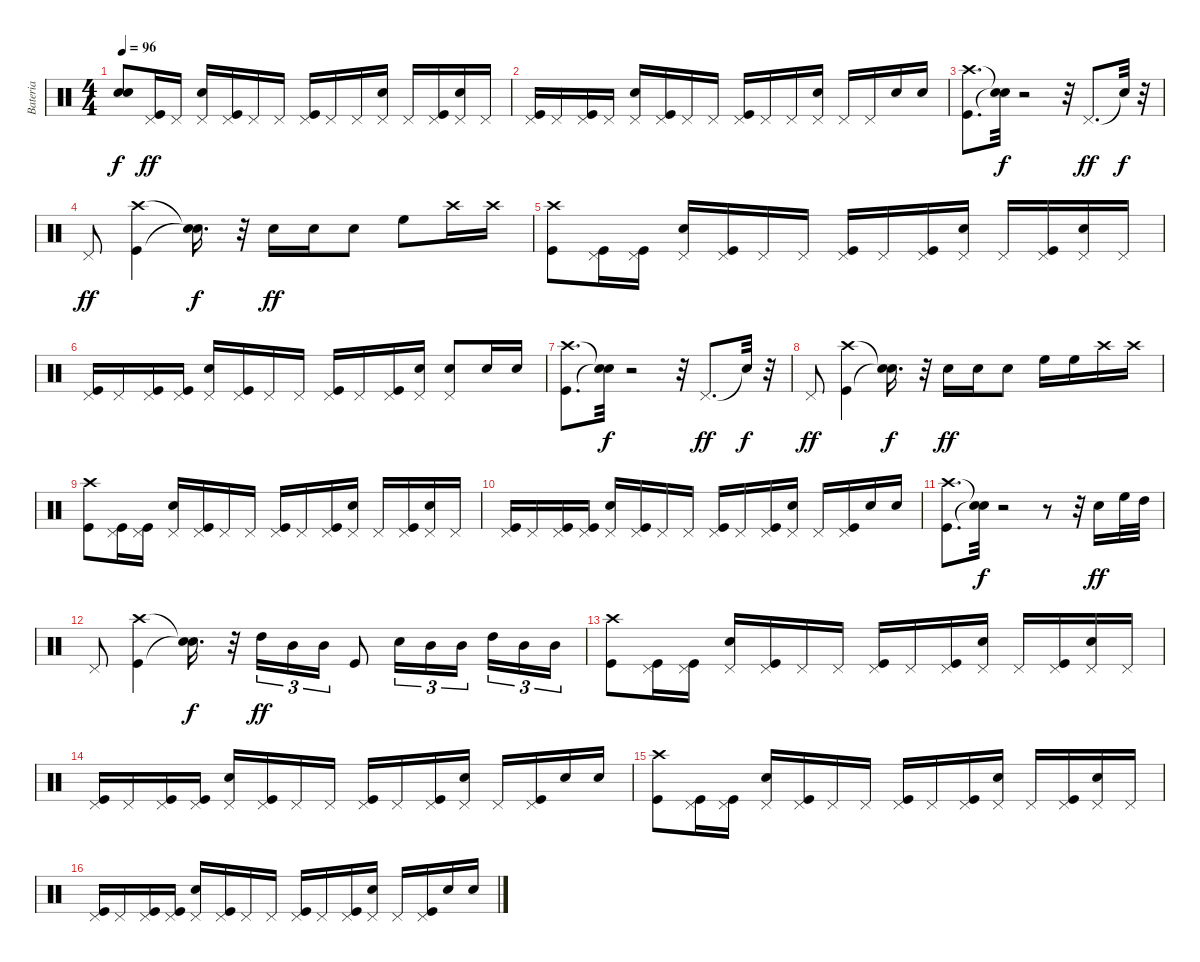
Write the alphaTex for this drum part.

\track ("Bateria" "Bateria") {instrument percussion}
\staff {score}
\articulation defaults
\ts (4 4)
\tempo 96
\clef neutral
\ks c
("Snare (hit)"{t} "Snare (hit)"{t}).8{dy f} ("Kick (hit)" "Pedal Hi-Hat (hit)").16{dy ff} "Pedal Hi-Hat (hit)".16 ("Snare (hit) 2" "Pedal Hi-Hat (hit)").16 ("Kick (hit)" "Pedal Hi-Hat (hit)").16 "Pedal Hi-Hat (hit)".16 "Pedal Hi-Hat (hit)".16 ("Kick (hit)" "Pedal Hi-Hat (hit)").16 "Pedal Hi-Hat (hit)".16 "Pedal Hi-Hat (hit)".16 ("Snare (hit) 2" "Pedal Hi-Hat (hit)").16 "Pedal Hi-Hat (hit)".16 ("Kick (hit)" "Pedal Hi-Hat (hit)").16 ("Snare (hit) 2" "Pedal Hi-Hat (hit)").16 "Pedal Hi-Hat (hit)".16 |
("Kick (hit)" "Pedal Hi-Hat (hit)").16 "Pedal Hi-Hat (hit)".16 ("Kick (hit)" "Pedal Hi-Hat (hit)").16 "Pedal Hi-Hat (hit)".16 ("Snare (hit) 2" "Pedal Hi-Hat (hit)").16 ("Kick (hit)" "Pedal Hi-Hat (hit)").16 "Pedal Hi-Hat (hit)".16 "Pedal Hi-Hat (hit)".16 ("Kick (hit)" "Pedal Hi-Hat (hit)").16 "Pedal Hi-Hat (hit)".16 "Pedal Hi-Hat (hit)".16 ("Snare (hit) 2" "Pedal Hi-Hat (hit)").16 "Pedal Hi-Hat (hit)".16 "Pedal Hi-Hat (hit)".16 "Snare (hit) 2".16 "Snare (hit) 2".16 |
("Kick (hit)" "Crash high (hit)").8{d} ("Snare (hit)"{t} "Snare (hit)"{t}).32{dy f} r.2 r.32 "Pedal Hi-Hat (hit)".8{d dy ff} "Snare (hit)"{t}.32{dy f} r.32 |
"Pedal Hi-Hat (hit)".8{dy ff} ("Kick (hit)" "Crash high (hit)").4 ("Snare (hit)"{t} "Snare (hit)"{t}).16{d dy f} r.32 "Snare (hit) 2".16{dy ff} "Snare (hit) 2".16 "Snare (hit) 2".8 "High Floor Tom (hit)".8 "Crash high (hit)".16 "Crash high (hit)".16 |
("Kick (hit)" "Crash high (hit)").8 ("Kick (hit)" "Pedal Hi-Hat (hit)").16 ("Kick (hit)" "Pedal Hi-Hat (hit)").16 ("Snare (hit) 2" "Pedal Hi-Hat (hit)").16 ("Kick (hit)" "Pedal Hi-Hat (hit)").16 "Pedal Hi-Hat (hit)".16 "Pedal Hi-Hat (hit)".16 ("Kick (hit)" "Pedal Hi-Hat (hit)").16 "Pedal Hi-Hat (hit)".16 ("Kick (hit)" "Pedal Hi-Hat (hit)").16 ("Snare (hit) 2" "Pedal Hi-Hat (hit)").16 "Pedal Hi-Hat (hit)".16 ("Kick (hit)" "Pedal Hi-Hat (hit)").16 ("Snare (hit) 2" "Pedal Hi-Hat (hit)").16 "Pedal Hi-Hat (hit)".16 |
("Kick (hit)" "Pedal Hi-Hat (hit)").16 "Pedal Hi-Hat (hit)".16 ("Kick (hit)" "Pedal Hi-Hat (hit)").16 ("Kick (hit)" "Pedal Hi-Hat (hit)").16 ("Snare (hit) 2" "Pedal Hi-Hat (hit)").16 ("Kick (hit)" "Pedal Hi-Hat (hit)").16 "Pedal Hi-Hat (hit)".16 "Pedal Hi-Hat (hit)".16 ("Kick (hit)" "Pedal Hi-Hat (hit)").16 "Pedal Hi-Hat (hit)".16 ("Kick (hit)" "Pedal Hi-Hat (hit)").16 ("Snare (hit) 2" "Pedal Hi-Hat (hit)").16 ("Snare (hit) 2" "Pedal Hi-Hat (hit)").8 "Snare (hit) 2".16 "Snare (hit) 2".16 |
("Kick (hit)" "Crash high (hit)").8{d} ("Snare (hit)"{t} "Snare (hit)"{t}).32{dy f} r.2 r.32 "Pedal Hi-Hat (hit)".8{d dy ff} "Snare (hit)"{t}.32{dy f} r.32 |
"Pedal Hi-Hat (hit)".8{dy ff} ("Kick (hit)" "Crash high (hit)").4 ("Snare (hit)"{t} "Snare (hit)"{t}).16{d dy f} r.32 "Snare (hit) 2".16{dy ff} "Snare (hit) 2".16 "Snare (hit) 2".8 "High Floor Tom (hit)".16 "High Floor Tom (hit)".16 "Crash high (hit)".16 "Crash high (hit)".16 |
("Kick (hit)" "Crash high (hit)").8 ("Kick (hit)" "Pedal Hi-Hat (hit)").16 ("Kick (hit)" "Pedal Hi-Hat (hit)").16 ("Snare (hit) 2" "Pedal Hi-Hat (hit)").16 ("Kick (hit)" "Pedal Hi-Hat (hit)").16 "Pedal Hi-Hat (hit)".16 "Pedal Hi-Hat (hit)".16 ("Kick (hit)" "Pedal Hi-Hat (hit)").16 "Pedal Hi-Hat (hit)".16 ("Kick (hit)" "Pedal Hi-Hat (hit)").16 ("Snare (hit) 2" "Pedal Hi-Hat (hit)").16 "Pedal Hi-Hat (hit)".16 ("Kick (hit)" "Pedal Hi-Hat (hit)").16 ("Snare (hit) 2" "Pedal Hi-Hat (hit)").16 "Pedal Hi-Hat (hit)".16 |
("Kick (hit)" "Pedal Hi-Hat (hit)").16 "Pedal Hi-Hat (hit)".16 ("Kick (hit)" "Pedal Hi-Hat (hit)").16 ("Kick (hit)" "Pedal Hi-Hat (hit)").16 ("Snare (hit) 2" "Pedal Hi-Hat (hit)").16 ("Kick (hit)" "Pedal Hi-Hat (hit)").16 "Pedal Hi-Hat (hit)".16 "Pedal Hi-Hat (hit)".16 ("Kick (hit)" "Pedal Hi-Hat (hit)").16 "Pedal Hi-Hat (hit)".16 ("Kick (hit)" "Pedal Hi-Hat (hit)").16 ("Snare (hit) 2" "Pedal Hi-Hat (hit)").16 "Pedal Hi-Hat (hit)".16 ("Kick (hit)" "Pedal Hi-Hat (hit)").16 "Snare (hit) 2".16 "Snare (hit) 2".16 |
("Kick (hit)" "Crash high (hit)").8{d} ("Snare (hit)"{t} "Snare (hit)"{t}).32{dy f} r.2 r.8 r.32 "Snare (hit) 2".16{dy ff} "High Floor Tom (hit)".32 "High Tom (hit)".32 |
"Pedal Hi-Hat (hit)".8 ("Kick (hit)" "Crash high (hit)").4 ("Snare (hit)"{t} "Snare (hit)"{t}).16{d dy f} r.32 "High Tom (hit)".16{tu (3 2) dy ff} "Mid Tom (hit)".16{tu (3 2)} "Mid Tom (hit)".16{tu (3 2)} "Kick (hit)".8 "Snare (hit) 2".16{tu (3 2)} "Mid Tom (hit)".16{tu (3 2)} "Mid Tom (hit)".16{tu (3 2)} "High Tom (hit)".16{tu (3 2)} "Mid Tom (hit)".16{tu (3 2)} "Mid Tom (hit)".16{tu (3 2)} |
("Kick (hit)" "Crash high (hit)").8 ("Kick (hit)" "Pedal Hi-Hat (hit)").16 ("Kick (hit)" "Pedal Hi-Hat (hit)").16 ("Snare (hit) 2" "Pedal Hi-Hat (hit)").16 ("Kick (hit)" "Pedal Hi-Hat (hit)").16 "Pedal Hi-Hat (hit)".16 "Pedal Hi-Hat (hit)".16 ("Kick (hit)" "Pedal Hi-Hat (hit)").16 "Pedal Hi-Hat (hit)".16 ("Kick (hit)" "Pedal Hi-Hat (hit)").16 ("Snare (hit) 2" "Pedal Hi-Hat (hit)").16 "Pedal Hi-Hat (hit)".16 ("Kick (hit)" "Pedal Hi-Hat (hit)").16 ("Snare (hit) 2" "Pedal Hi-Hat (hit)").16 "Pedal Hi-Hat (hit)".16 |
("Kick (hit)" "Pedal Hi-Hat (hit)").16 "Pedal Hi-Hat (hit)".16 ("Kick (hit)" "Pedal Hi-Hat (hit)").16 ("Kick (hit)" "Pedal Hi-Hat (hit)").16 ("Snare (hit) 2" "Pedal Hi-Hat (hit)").16 ("Kick (hit)" "Pedal Hi-Hat (hit)").16 "Pedal Hi-Hat (hit)".16 "Pedal Hi-Hat (hit)".16 ("Kick (hit)" "Pedal Hi-Hat (hit)").16 "Pedal Hi-Hat (hit)".16 ("Kick (hit)" "Pedal Hi-Hat (hit)").16 ("Snare (hit) 2" "Pedal Hi-Hat (hit)").16 "Pedal Hi-Hat (hit)".16 ("Kick (hit)" "Pedal Hi-Hat (hit)").16 "Snare (hit) 2".16 "Snare (hit) 2".16 |
("Kick (hit)" "Crash high (hit)").8 ("Kick (hit)" "Pedal Hi-Hat (hit)").16 ("Kick (hit)" "Pedal Hi-Hat (hit)").16 ("Snare (hit) 2" "Pedal Hi-Hat (hit)").16 ("Kick (hit)" "Pedal Hi-Hat (hit)").16 "Pedal Hi-Hat (hit)".16 "Pedal Hi-Hat (hit)".16 ("Kick (hit)" "Pedal Hi-Hat (hit)").16 "Pedal Hi-Hat (hit)".16 ("Kick (hit)" "Pedal Hi-Hat (hit)").16 ("Snare (hit) 2" "Pedal Hi-Hat (hit)").16 "Pedal Hi-Hat (hit)".16 ("Kick (hit)" "Pedal Hi-Hat (hit)").16 ("Snare (hit) 2" "Pedal Hi-Hat (hit)").16 "Pedal Hi-Hat (hit)".16 |
("Kick (hit)" "Pedal Hi-Hat (hit)").16 "Pedal Hi-Hat (hit)".16 ("Kick (hit)" "Pedal Hi-Hat (hit)").16 ("Kick (hit)" "Pedal Hi-Hat (hit)").16 ("Snare (hit) 2" "Pedal Hi-Hat (hit)").16 ("Kick (hit)" "Pedal Hi-Hat (hit)").16 "Pedal Hi-Hat (hit)".16 "Pedal Hi-Hat (hit)".16 ("Kick (hit)" "Pedal Hi-Hat (hit)").16 "Pedal Hi-Hat (hit)".16 ("Kick (hit)" "Pedal Hi-Hat (hit)").16 ("Snare (hit) 2" "Pedal Hi-Hat (hit)").16 "Pedal Hi-Hat (hit)".16 ("Kick (hit)" "Pedal Hi-Hat (hit)").16 "Snare (hit) 2".16 "Snare (hit) 2".16
